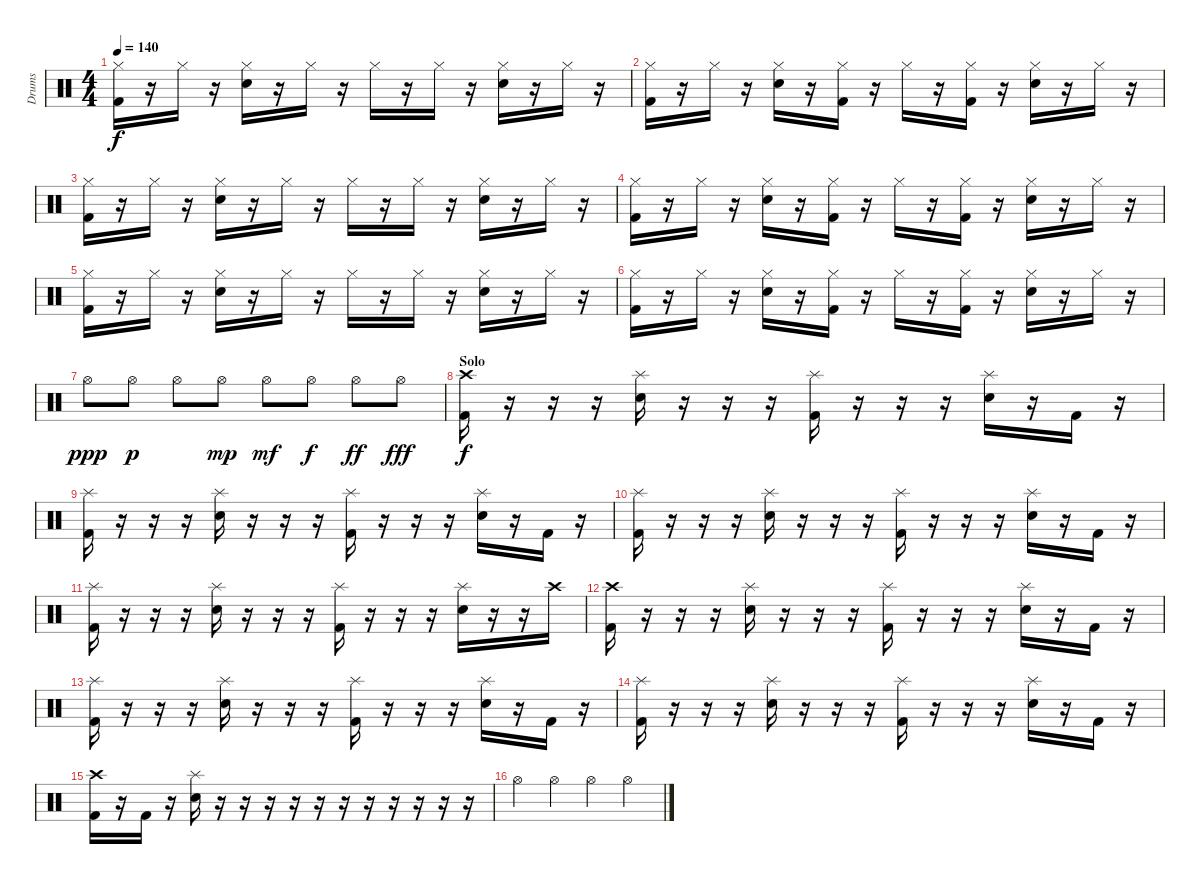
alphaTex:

\track ("Drums" "Drums") {instrument percussion}
\staff {score}
\articulation defaults
\ts (4 4)
\tempo 140
\clef neutral
\ks c
("Kick (hit) 2" "Hi-Hat (closed)").16{dy f} r.16 "Hi-Hat (closed)".16 r.16 ("Snare (hit) 2" "Hi-Hat (closed)").16 r.16 "Hi-Hat (closed)".16 r.16 "Hi-Hat (closed)".16 r.16 "Hi-Hat (closed)".16 r.16 ("Snare (hit) 2" "Hi-Hat (closed)").16 r.16 "Hi-Hat (closed)".16 r.16 |
("Kick (hit) 2" "Hi-Hat (closed)").16 r.16 "Hi-Hat (closed)".16 r.16 ("Snare (hit) 2" "Hi-Hat (closed)").16 r.16 ("Kick (hit) 2" "Hi-Hat (closed)").16 r.16 "Hi-Hat (closed)".16 r.16 ("Kick (hit) 2" "Hi-Hat (closed)").16 r.16 ("Snare (hit) 2" "Hi-Hat (closed)").16 r.16 "Hi-Hat (closed)".16 r.16 |
("Kick (hit) 2" "Hi-Hat (closed)").16 r.16 "Hi-Hat (closed)".16 r.16 ("Snare (hit) 2" "Hi-Hat (closed)").16 r.16 "Hi-Hat (closed)".16 r.16 "Hi-Hat (closed)".16 r.16 "Hi-Hat (closed)".16 r.16 ("Snare (hit) 2" "Hi-Hat (closed)").16 r.16 "Hi-Hat (closed)".16 r.16 |
("Kick (hit) 2" "Hi-Hat (closed)").16 r.16 "Hi-Hat (closed)".16 r.16 ("Snare (hit) 2" "Hi-Hat (closed)").16 r.16 ("Kick (hit) 2" "Hi-Hat (closed)").16 r.16 "Hi-Hat (closed)".16 r.16 ("Kick (hit) 2" "Hi-Hat (closed)").16 r.16 ("Snare (hit) 2" "Hi-Hat (closed)").16 r.16 "Hi-Hat (closed)".16 r.16 |
("Kick (hit) 2" "Hi-Hat (closed)").16 r.16 "Hi-Hat (closed)".16 r.16 ("Snare (hit) 2" "Hi-Hat (closed)").16 r.16 "Hi-Hat (closed)".16 r.16 "Hi-Hat (closed)".16 r.16 "Hi-Hat (closed)".16 r.16 ("Snare (hit) 2" "Hi-Hat (closed)").16 r.16 "Hi-Hat (closed)".16 r.16 |
("Kick (hit) 2" "Hi-Hat (closed)").16 r.16 "Hi-Hat (closed)".16 r.16 ("Snare (hit) 2" "Hi-Hat (closed)").16 r.16 ("Kick (hit) 2" "Hi-Hat (closed)").16 r.16 "Hi-Hat (closed)".16 r.16 ("Kick (hit) 2" "Hi-Hat (closed)").16 r.16 ("Snare (hit) 2" "Hi-Hat (closed)").16 r.16 "Hi-Hat (closed)".16 r.16 |
"Hi-Hat (open)".8{dy ppp} "Hi-Hat (open)".8{dy p} "Hi-Hat (open)".8 "Hi-Hat (open)".8{dy mp} "Hi-Hat (open)".8{dy mf} "Hi-Hat (open)".8{dy f} "Hi-Hat (open)".8{dy ff} "Hi-Hat (open)".8{dy fff} |
\section ("" "Solo")
("Kick (hit) 2" "Crash high (hit)").16{dy f volume 11} r.16 r.16 r.16 ("Snare (hit) 2" "Splash (hit)").16 r.16 r.16 r.16 ("Kick (hit) 2" "Splash (hit)").16 r.16 r.16 r.16 ("Snare (hit) 2" "Splash (hit)").16 r.16 "Kick (hit) 2".16 r.16 |
("Kick (hit) 2" "Splash (hit)").16 r.16 r.16 r.16 ("Snare (hit) 2" "Splash (hit)").16 r.16 r.16 r.16 ("Kick (hit) 2" "Splash (hit)").16 r.16 r.16 r.16 ("Snare (hit) 2" "Splash (hit)").16 r.16 "Kick (hit) 2".16 r.16 |
("Kick (hit) 2" "Splash (hit)").16 r.16 r.16 r.16 ("Snare (hit) 2" "Splash (hit)").16 r.16 r.16 r.16 ("Kick (hit) 2" "Splash (hit)").16 r.16 r.16 r.16 ("Snare (hit) 2" "Splash (hit)").16 r.16 "Kick (hit) 2".16 r.16 |
("Kick (hit) 2" "Splash (hit)").16 r.16 r.16 r.16 ("Snare (hit) 2" "Splash (hit)").16 r.16 r.16 r.16 ("Kick (hit) 2" "Splash (hit)").16 r.16 r.16 r.16 ("Snare (hit) 2" "Splash (hit)").16 r.16 r.16 "Crash high (hit)".16 |
("Kick (hit) 2" "Crash high (hit)").16 r.16 r.16 r.16 ("Snare (hit) 2" "Splash (hit)").16 r.16 r.16 r.16 ("Kick (hit) 2" "Splash (hit)").16 r.16 r.16 r.16 ("Snare (hit) 2" "Splash (hit)").16 r.16 "Kick (hit) 2".16 r.16 |
("Kick (hit) 2" "Splash (hit)").16 r.16 r.16 r.16 ("Snare (hit) 2" "Splash (hit)").16 r.16 r.16 r.16 ("Kick (hit) 2" "Splash (hit)").16 r.16 r.16 r.16 ("Snare (hit) 2" "Splash (hit)").16 r.16 "Kick (hit) 2".16 r.16 |
("Kick (hit) 2" "Splash (hit)").16 r.16 r.16 r.16 ("Snare (hit) 2" "Splash (hit)").16 r.16 r.16 r.16 ("Kick (hit) 2" "Splash (hit)").16 r.16 r.16 r.16 ("Snare (hit) 2" "Splash (hit)").16 r.16 "Kick (hit) 2".16 r.16 |
("Kick (hit) 2" "Crash high (hit)").16 r.16 "Kick (hit) 2".16 r.16 ("Snare (hit) 2" "Splash (hit)").16 r.16 r.16 r.16 r.16 r.16 r.16 r.16 r.16 r.16 r.16 r.16 |
"Hi-Hat (open)".4 "Hi-Hat (open)".4 "Hi-Hat (open)".4 "Hi-Hat (open)".4
